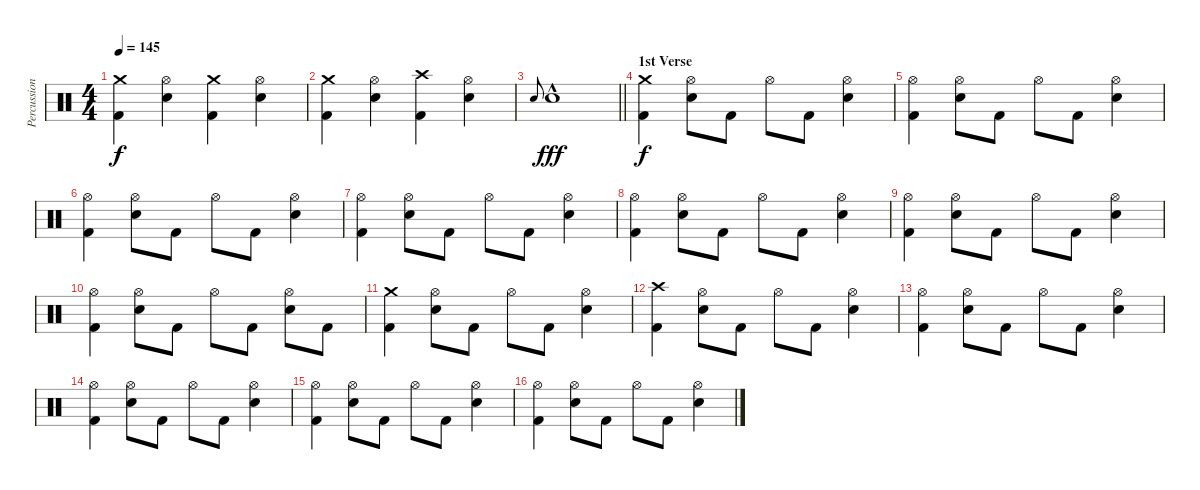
\track ("Percussion" "Percussion") {instrument percussion}
\staff {score}
\articulation defaults
\ts (4 4)
\tempo 145
\clef neutral
\ks c
("Kick (hit) 2" "Crash medium (hit)").4{dy f} ("Electric Snare (hit)" "Hi-Hat (open)").4 ("Kick (hit) 2" "Crash medium (hit)").4 ("Electric Snare (hit)" "Hi-Hat (open)").4 |
("Kick (hit) 2" "Crash medium (hit)").4 ("Electric Snare (hit)" "Hi-Hat (open)").4 ("Kick (hit) 2" "Crash high (hit)").4 ("Electric Snare (hit)" "Hi-Hat (open)").4 |
\barLineRight lightlight "Electric Snare (hit)".8{gr onbeat} "Electric Snare (hit)"{hac}.1{dy fff}
|
\section ("" "1st Verse")
("Kick (hit) 2" "Crash medium (hit)").4{dy f} ("Electric Snare (hit)" "Hi-Hat (open)").8 "Kick (hit) 2".8 "Hi-Hat (open)".8 "Kick (hit) 2".8 ("Electric Snare (hit)" "Hi-Hat (open)").4 |
("Kick (hit) 2" "Hi-Hat (open)").4 ("Electric Snare (hit)" "Hi-Hat (open)").8 "Kick (hit) 2".8 "Hi-Hat (open)".8 "Kick (hit) 2".8 ("Electric Snare (hit)" "Hi-Hat (open)").4 |
("Kick (hit) 2" "Hi-Hat (open)").4 ("Electric Snare (hit)" "Hi-Hat (open)").8 "Kick (hit) 2".8 "Hi-Hat (open)".8 "Kick (hit) 2".8 ("Electric Snare (hit)" "Hi-Hat (open)").4 |
("Kick (hit) 2" "Hi-Hat (open)").4 ("Electric Snare (hit)" "Hi-Hat (open)").8 "Kick (hit) 2".8 "Hi-Hat (open)".8 "Kick (hit) 2".8 ("Electric Snare (hit)" "Hi-Hat (open)").4 |
("Kick (hit) 2" "Hi-Hat (open)").4 ("Electric Snare (hit)" "Hi-Hat (open)").8 "Kick (hit) 2".8 "Hi-Hat (open)".8 "Kick (hit) 2".8 ("Electric Snare (hit)" "Hi-Hat (open)").4 |
("Kick (hit) 2" "Hi-Hat (open)").4 ("Electric Snare (hit)" "Hi-Hat (open)").8 "Kick (hit) 2".8 "Hi-Hat (open)".8 "Kick (hit) 2".8 ("Electric Snare (hit)" "Hi-Hat (open)").4 |
("Kick (hit) 2" "Hi-Hat (open)").4 ("Electric Snare (hit)" "Hi-Hat (open)").8 "Kick (hit) 2".8 "Hi-Hat (open)".8 "Kick (hit) 2".8 ("Electric Snare (hit)" "Hi-Hat (open)").8 "Kick (hit) 2".8 |
("Kick (hit) 2" "Crash medium (hit)").4 ("Electric Snare (hit)" "Hi-Hat (open)").8 "Kick (hit) 2".8 "Hi-Hat (open)".8 "Kick (hit) 2".8 ("Electric Snare (hit)" "Hi-Hat (open)").4 |
("Kick (hit) 2" "Crash high (hit)").4 ("Electric Snare (hit)" "Hi-Hat (open)").8 "Kick (hit) 2".8 "Hi-Hat (open)".8 "Kick (hit) 2".8 ("Electric Snare (hit)" "Hi-Hat (open)").4 |
("Kick (hit) 2" "Hi-Hat (open)").4 ("Electric Snare (hit)" "Hi-Hat (open)").8 "Kick (hit) 2".8 "Hi-Hat (open)".8 "Kick (hit) 2".8 ("Electric Snare (hit)" "Hi-Hat (open)").4 |
("Kick (hit) 2" "Hi-Hat (open)").4 ("Electric Snare (hit)" "Hi-Hat (open)").8 "Kick (hit) 2".8 "Hi-Hat (open)".8 "Kick (hit) 2".8 ("Electric Snare (hit)" "Hi-Hat (open)").4 |
("Kick (hit) 2" "Hi-Hat (open)").4 ("Electric Snare (hit)" "Hi-Hat (open)").8 "Kick (hit) 2".8 "Hi-Hat (open)".8 "Kick (hit) 2".8 ("Electric Snare (hit)" "Hi-Hat (open)").4 |
("Kick (hit) 2" "Hi-Hat (open)").4 ("Electric Snare (hit)" "Hi-Hat (open)").8 "Kick (hit) 2".8 "Hi-Hat (open)".8 "Kick (hit) 2".8 ("Electric Snare (hit)" "Hi-Hat (open)").4
